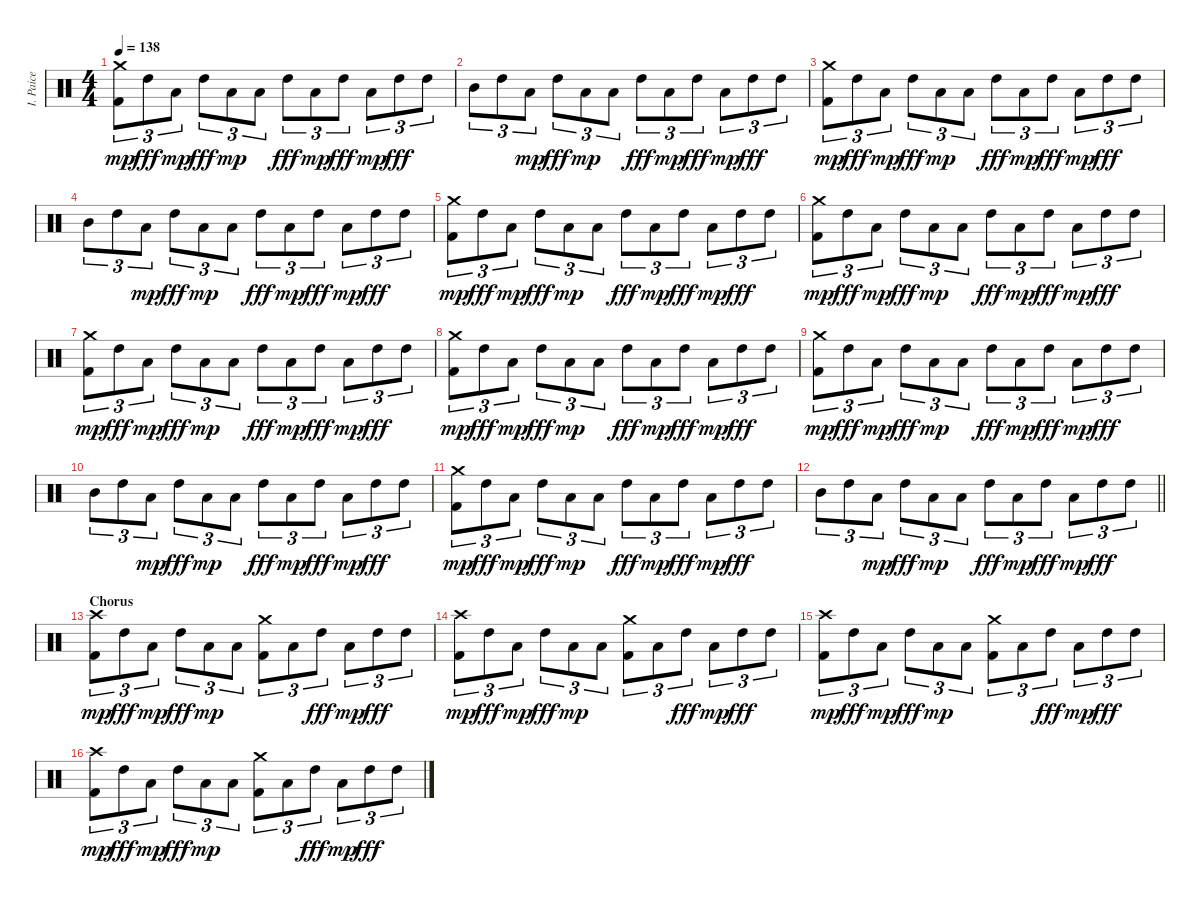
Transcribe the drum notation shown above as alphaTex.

\track ("I. Paice" "I. Paice") {instrument percussion}
\staff {score}
\articulation defaults
\ts (4 4)
\tempo 138
\clef neutral
\ks c
("Crash medium (hit)" "Kick (hit) 2").8{tu (3 2) dy mp} "High Tom (hit)".8{tu (3 2) dy fff} "Low Tom (hit)".8{tu (3 2) dy mp} "High Tom (hit)".8{tu (3 2) dy fff} "Low Tom (hit)".8{tu (3 2) dy mp} "Low Tom (hit)".8{tu (3 2)} "High Tom (hit)".8{tu (3 2) dy fff} "Low Tom (hit)".8{tu (3 2) dy mp} "High Tom (hit)".8{tu (3 2) dy fff} "Low Tom (hit)".8{tu (3 2) dy mp} "High Tom (hit)".8{tu (3 2) dy fff} "High Tom (hit)".8{tu (3 2)} |
"Mid Tom (hit)".8{tu (3 2)} "High Tom (hit)".8{tu (3 2)} "Low Tom (hit)".8{tu (3 2) dy mp} "High Tom (hit)".8{tu (3 2) dy fff} "Low Tom (hit)".8{tu (3 2) dy mp} "Low Tom (hit)".8{tu (3 2)} "High Tom (hit)".8{tu (3 2) dy fff} "Low Tom (hit)".8{tu (3 2) dy mp} "High Tom (hit)".8{tu (3 2) dy fff} "Low Tom (hit)".8{tu (3 2) dy mp} "High Tom (hit)".8{tu (3 2) dy fff} "High Tom (hit)".8{tu (3 2)} |
("Crash medium (hit)" "Kick (hit) 2").8{tu (3 2) dy mp} "High Tom (hit)".8{tu (3 2) dy fff} "Low Tom (hit)".8{tu (3 2) dy mp} "High Tom (hit)".8{tu (3 2) dy fff} "Low Tom (hit)".8{tu (3 2) dy mp} "Low Tom (hit)".8{tu (3 2)} "High Tom (hit)".8{tu (3 2) dy fff} "Low Tom (hit)".8{tu (3 2) dy mp} "High Tom (hit)".8{tu (3 2) dy fff} "Low Tom (hit)".8{tu (3 2) dy mp} "High Tom (hit)".8{tu (3 2) dy fff} "High Tom (hit)".8{tu (3 2)} |
"Mid Tom (hit)".8{tu (3 2)} "High Tom (hit)".8{tu (3 2)} "Low Tom (hit)".8{tu (3 2) dy mp} "High Tom (hit)".8{tu (3 2) dy fff} "Low Tom (hit)".8{tu (3 2) dy mp} "Low Tom (hit)".8{tu (3 2)} "High Tom (hit)".8{tu (3 2) dy fff} "Low Tom (hit)".8{tu (3 2) dy mp} "High Tom (hit)".8{tu (3 2) dy fff} "Low Tom (hit)".8{tu (3 2) dy mp} "High Tom (hit)".8{tu (3 2) dy fff} "High Tom (hit)".8{tu (3 2)} |
("Crash medium (hit)" "Kick (hit) 2").8{tu (3 2) dy mp} "High Tom (hit)".8{tu (3 2) dy fff} "Low Tom (hit)".8{tu (3 2) dy mp} "High Tom (hit)".8{tu (3 2) dy fff} "Low Tom (hit)".8{tu (3 2) dy mp} "Low Tom (hit)".8{tu (3 2)} "High Tom (hit)".8{tu (3 2) dy fff} "Low Tom (hit)".8{tu (3 2) dy mp} "High Tom (hit)".8{tu (3 2) dy fff} "Low Tom (hit)".8{tu (3 2) dy mp} "High Tom (hit)".8{tu (3 2) dy fff} "High Tom (hit)".8{tu (3 2)} |
("Crash medium (hit)" "Kick (hit) 2").8{tu (3 2) dy mp} "High Tom (hit)".8{tu (3 2) dy fff} "Low Tom (hit)".8{tu (3 2) dy mp} "High Tom (hit)".8{tu (3 2) dy fff} "Low Tom (hit)".8{tu (3 2) dy mp} "Low Tom (hit)".8{tu (3 2)} "High Tom (hit)".8{tu (3 2) dy fff} "Low Tom (hit)".8{tu (3 2) dy mp} "High Tom (hit)".8{tu (3 2) dy fff} "Low Tom (hit)".8{tu (3 2) dy mp} "High Tom (hit)".8{tu (3 2) dy fff} "High Tom (hit)".8{tu (3 2)} |
("Crash medium (hit)" "Kick (hit) 2").8{tu (3 2) dy mp} "High Tom (hit)".8{tu (3 2) dy fff} "Low Tom (hit)".8{tu (3 2) dy mp} "High Tom (hit)".8{tu (3 2) dy fff} "Low Tom (hit)".8{tu (3 2) dy mp} "Low Tom (hit)".8{tu (3 2)} "High Tom (hit)".8{tu (3 2) dy fff} "Low Tom (hit)".8{tu (3 2) dy mp} "High Tom (hit)".8{tu (3 2) dy fff} "Low Tom (hit)".8{tu (3 2) dy mp} "High Tom (hit)".8{tu (3 2) dy fff} "High Tom (hit)".8{tu (3 2)} |
("Crash medium (hit)" "Kick (hit) 2").8{tu (3 2) dy mp} "High Tom (hit)".8{tu (3 2) dy fff} "Low Tom (hit)".8{tu (3 2) dy mp} "High Tom (hit)".8{tu (3 2) dy fff} "Low Tom (hit)".8{tu (3 2) dy mp} "Low Tom (hit)".8{tu (3 2)} "High Tom (hit)".8{tu (3 2) dy fff} "Low Tom (hit)".8{tu (3 2) dy mp} "High Tom (hit)".8{tu (3 2) dy fff} "Low Tom (hit)".8{tu (3 2) dy mp} "High Tom (hit)".8{tu (3 2) dy fff} "High Tom (hit)".8{tu (3 2)} |
("Crash medium (hit)" "Kick (hit) 2").8{tu (3 2) dy mp} "High Tom (hit)".8{tu (3 2) dy fff} "Low Tom (hit)".8{tu (3 2) dy mp} "High Tom (hit)".8{tu (3 2) dy fff} "Low Tom (hit)".8{tu (3 2) dy mp} "Low Tom (hit)".8{tu (3 2)} "High Tom (hit)".8{tu (3 2) dy fff} "Low Tom (hit)".8{tu (3 2) dy mp} "High Tom (hit)".8{tu (3 2) dy fff} "Low Tom (hit)".8{tu (3 2) dy mp} "High Tom (hit)".8{tu (3 2) dy fff} "High Tom (hit)".8{tu (3 2)} |
"Mid Tom (hit)".8{tu (3 2)} "High Tom (hit)".8{tu (3 2)} "Low Tom (hit)".8{tu (3 2) dy mp} "High Tom (hit)".8{tu (3 2) dy fff} "Low Tom (hit)".8{tu (3 2) dy mp} "Low Tom (hit)".8{tu (3 2)} "High Tom (hit)".8{tu (3 2) dy fff} "Low Tom (hit)".8{tu (3 2) dy mp} "High Tom (hit)".8{tu (3 2) dy fff} "Low Tom (hit)".8{tu (3 2) dy mp} "High Tom (hit)".8{tu (3 2) dy fff} "High Tom (hit)".8{tu (3 2)} |
("Crash medium (hit)" "Kick (hit) 2").8{tu (3 2) dy mp} "High Tom (hit)".8{tu (3 2) dy fff} "Low Tom (hit)".8{tu (3 2) dy mp} "High Tom (hit)".8{tu (3 2) dy fff} "Low Tom (hit)".8{tu (3 2) dy mp} "Low Tom (hit)".8{tu (3 2)} "High Tom (hit)".8{tu (3 2) dy fff} "Low Tom (hit)".8{tu (3 2) dy mp} "High Tom (hit)".8{tu (3 2) dy fff} "Low Tom (hit)".8{tu (3 2) dy mp} "High Tom (hit)".8{tu (3 2) dy fff} "High Tom (hit)".8{tu (3 2)} |
\barLineRight lightlight "Mid Tom (hit)".8{tu (3 2)} "High Tom (hit)".8{tu (3 2)} "Low Tom (hit)".8{tu (3 2) dy mp} "High Tom (hit)".8{tu (3 2) dy fff} "Low Tom (hit)".8{tu (3 2) dy mp} "Low Tom (hit)".8{tu (3 2)} "High Tom (hit)".8{tu (3 2) dy fff} "Low Tom (hit)".8{tu (3 2) dy mp} "High Tom (hit)".8{tu (3 2) dy fff} "Low Tom (hit)".8{tu (3 2) dy mp} "High Tom (hit)".8{tu (3 2) dy fff} "High Tom (hit)".8{tu (3 2)}
|
\section ("" "Chorus")
("Crash high (hit)" "Kick (hit) 2").8{tu (3 2) dy mp} "High Tom (hit)".8{tu (3 2) dy fff} "Low Tom (hit)".8{tu (3 2) dy mp} "High Tom (hit)".8{tu (3 2) dy fff} "Low Tom (hit)".8{tu (3 2) dy mp} "Low Tom (hit)".8{tu (3 2)} ("Crash medium (hit)" "Kick (hit) 2").8{tu (3 2)} "Low Tom (hit)".8{tu (3 2)} "High Tom (hit)".8{tu (3 2) dy fff} "Low Tom (hit)".8{tu (3 2) dy mp} "High Tom (hit)".8{tu (3 2) dy fff} "High Tom (hit)".8{tu (3 2)} |
("Crash high (hit)" "Kick (hit) 2").8{tu (3 2) dy mp} "High Tom (hit)".8{tu (3 2) dy fff} "Low Tom (hit)".8{tu (3 2) dy mp} "High Tom (hit)".8{tu (3 2) dy fff} "Low Tom (hit)".8{tu (3 2) dy mp} "Low Tom (hit)".8{tu (3 2)} ("Crash medium (hit)" "Kick (hit) 2").8{tu (3 2)} "Low Tom (hit)".8{tu (3 2)} "High Tom (hit)".8{tu (3 2) dy fff} "Low Tom (hit)".8{tu (3 2) dy mp} "High Tom (hit)".8{tu (3 2) dy fff} "High Tom (hit)".8{tu (3 2)} |
("Crash high (hit)" "Kick (hit) 2").8{tu (3 2) dy mp} "High Tom (hit)".8{tu (3 2) dy fff} "Low Tom (hit)".8{tu (3 2) dy mp} "High Tom (hit)".8{tu (3 2) dy fff} "Low Tom (hit)".8{tu (3 2) dy mp} "Low Tom (hit)".8{tu (3 2)} ("Crash medium (hit)" "Kick (hit) 2").8{tu (3 2)} "Low Tom (hit)".8{tu (3 2)} "High Tom (hit)".8{tu (3 2) dy fff} "Low Tom (hit)".8{tu (3 2) dy mp} "High Tom (hit)".8{tu (3 2) dy fff} "High Tom (hit)".8{tu (3 2)} |
("Crash high (hit)" "Kick (hit) 2").8{tu (3 2) dy mp} "High Tom (hit)".8{tu (3 2) dy fff} "Low Tom (hit)".8{tu (3 2) dy mp} "High Tom (hit)".8{tu (3 2) dy fff} "Low Tom (hit)".8{tu (3 2) dy mp} "Low Tom (hit)".8{tu (3 2)} ("Crash medium (hit)" "Kick (hit) 2").8{tu (3 2)} "Low Tom (hit)".8{tu (3 2)} "High Tom (hit)".8{tu (3 2) dy fff} "Low Tom (hit)".8{tu (3 2) dy mp} "High Tom (hit)".8{tu (3 2) dy fff} "High Tom (hit)".8{tu (3 2)}
